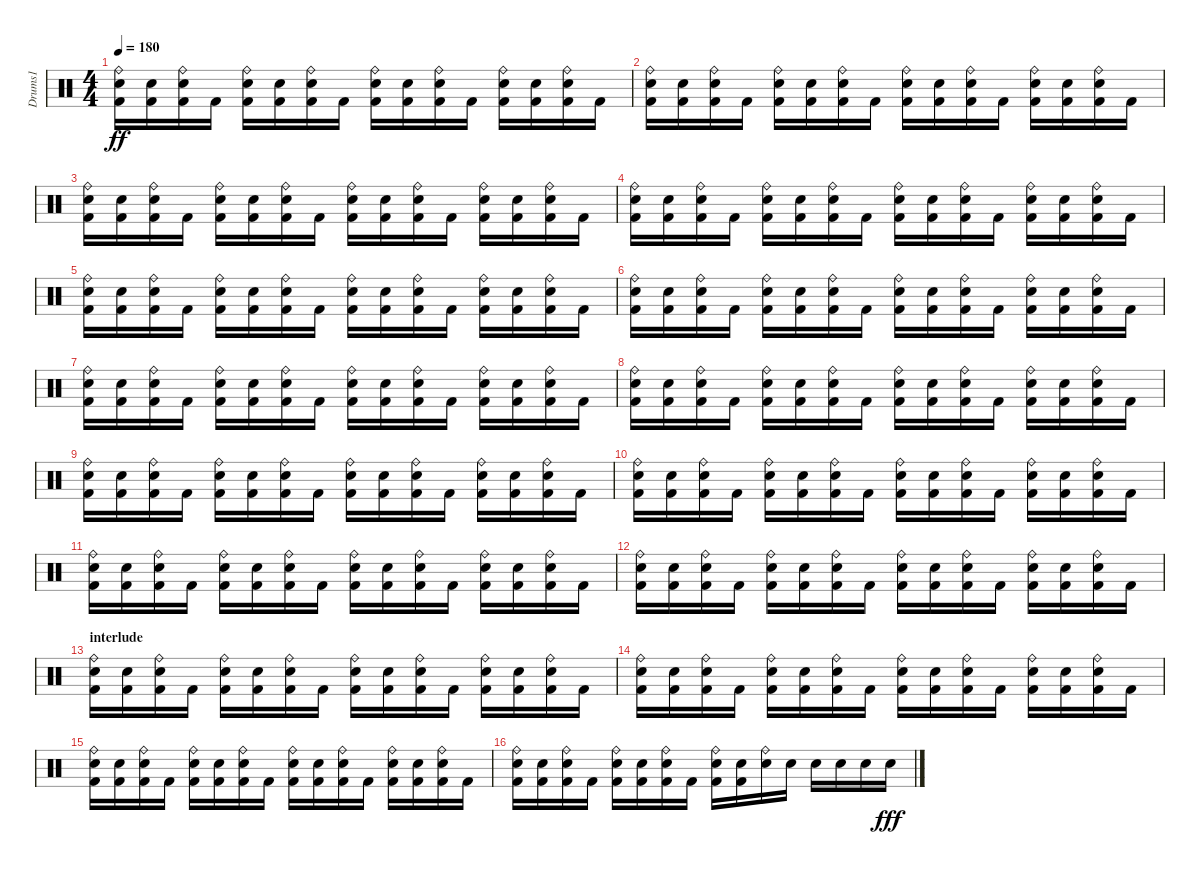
\track ("Drums1" "Drums1") {instrument percussion}
\staff {score}
\articulation defaults
\ts (4 4)
\tempo 180
\clef neutral
\ks c
("Ride (bell)" "Electric Snare (hit)" "Kick (hit) 2").16{dy ff} ("Electric Snare (hit)" "Kick (hit) 2").16 ("Ride (bell)" "Electric Snare (hit)" "Kick (hit) 2").16 "Kick (hit) 2".16 ("Ride (bell)" "Electric Snare (hit)" "Kick (hit) 2").16 ("Electric Snare (hit)" "Kick (hit) 2").16 ("Ride (bell)" "Electric Snare (hit)" "Kick (hit) 2").16 "Kick (hit) 2".16 ("Ride (bell)" "Electric Snare (hit)" "Kick (hit) 2").16 ("Electric Snare (hit)" "Kick (hit) 2").16 ("Ride (bell)" "Electric Snare (hit)" "Kick (hit) 2").16 "Kick (hit) 2".16 ("Ride (bell)" "Electric Snare (hit)" "Kick (hit) 2").16 ("Electric Snare (hit)" "Kick (hit) 2").16 ("Ride (bell)" "Electric Snare (hit)" "Kick (hit) 2").16 "Kick (hit) 2".16 |
("Ride (bell)" "Electric Snare (hit)" "Kick (hit) 2").16 ("Electric Snare (hit)" "Kick (hit) 2").16 ("Ride (bell)" "Electric Snare (hit)" "Kick (hit) 2").16 "Kick (hit) 2".16 ("Ride (bell)" "Electric Snare (hit)" "Kick (hit) 2").16 ("Electric Snare (hit)" "Kick (hit) 2").16 ("Ride (bell)" "Electric Snare (hit)" "Kick (hit) 2").16 "Kick (hit) 2".16 ("Ride (bell)" "Electric Snare (hit)" "Kick (hit) 2").16 ("Electric Snare (hit)" "Kick (hit) 2").16 ("Ride (bell)" "Electric Snare (hit)" "Kick (hit) 2").16 "Kick (hit) 2".16 ("Ride (bell)" "Electric Snare (hit)" "Kick (hit) 2").16 ("Electric Snare (hit)" "Kick (hit) 2").16 ("Ride (bell)" "Electric Snare (hit)" "Kick (hit) 2").16 "Kick (hit) 2".16 |
("Ride (bell)" "Electric Snare (hit)" "Kick (hit) 2").16 ("Electric Snare (hit)" "Kick (hit) 2").16 ("Ride (bell)" "Electric Snare (hit)" "Kick (hit) 2").16 "Kick (hit) 2".16 ("Ride (bell)" "Electric Snare (hit)" "Kick (hit) 2").16 ("Electric Snare (hit)" "Kick (hit) 2").16 ("Ride (bell)" "Electric Snare (hit)" "Kick (hit) 2").16 "Kick (hit) 2".16 ("Ride (bell)" "Electric Snare (hit)" "Kick (hit) 2").16 ("Electric Snare (hit)" "Kick (hit) 2").16 ("Ride (bell)" "Electric Snare (hit)" "Kick (hit) 2").16 "Kick (hit) 2".16 ("Ride (bell)" "Electric Snare (hit)" "Kick (hit) 2").16 ("Electric Snare (hit)" "Kick (hit) 2").16 ("Ride (bell)" "Electric Snare (hit)" "Kick (hit) 2").16 "Kick (hit) 2".16 |
("Ride (bell)" "Electric Snare (hit)" "Kick (hit) 2").16 ("Electric Snare (hit)" "Kick (hit) 2").16 ("Ride (bell)" "Electric Snare (hit)" "Kick (hit) 2").16 "Kick (hit) 2".16 ("Ride (bell)" "Electric Snare (hit)" "Kick (hit) 2").16 ("Electric Snare (hit)" "Kick (hit) 2").16 ("Ride (bell)" "Electric Snare (hit)" "Kick (hit) 2").16 "Kick (hit) 2".16 ("Ride (bell)" "Electric Snare (hit)" "Kick (hit) 2").16 ("Electric Snare (hit)" "Kick (hit) 2").16 ("Ride (bell)" "Electric Snare (hit)" "Kick (hit) 2").16 "Kick (hit) 2".16 ("Ride (bell)" "Electric Snare (hit)" "Kick (hit) 2").16 ("Electric Snare (hit)" "Kick (hit) 2").16 ("Ride (bell)" "Electric Snare (hit)" "Kick (hit) 2").16 "Kick (hit) 2".16 |
("Ride (bell)" "Electric Snare (hit)" "Kick (hit) 2").16 ("Electric Snare (hit)" "Kick (hit) 2").16 ("Ride (bell)" "Electric Snare (hit)" "Kick (hit) 2").16 "Kick (hit) 2".16 ("Ride (bell)" "Electric Snare (hit)" "Kick (hit) 2").16 ("Electric Snare (hit)" "Kick (hit) 2").16 ("Ride (bell)" "Electric Snare (hit)" "Kick (hit) 2").16 "Kick (hit) 2".16 ("Ride (bell)" "Electric Snare (hit)" "Kick (hit) 2").16 ("Electric Snare (hit)" "Kick (hit) 2").16 ("Ride (bell)" "Electric Snare (hit)" "Kick (hit) 2").16 "Kick (hit) 2".16 ("Ride (bell)" "Electric Snare (hit)" "Kick (hit) 2").16 ("Electric Snare (hit)" "Kick (hit) 2").16 ("Ride (bell)" "Electric Snare (hit)" "Kick (hit) 2").16 "Kick (hit) 2".16 |
("Ride (bell)" "Electric Snare (hit)" "Kick (hit) 2").16 ("Electric Snare (hit)" "Kick (hit) 2").16 ("Ride (bell)" "Electric Snare (hit)" "Kick (hit) 2").16 "Kick (hit) 2".16 ("Ride (bell)" "Electric Snare (hit)" "Kick (hit) 2").16 ("Electric Snare (hit)" "Kick (hit) 2").16 ("Ride (bell)" "Electric Snare (hit)" "Kick (hit) 2").16 "Kick (hit) 2".16 ("Ride (bell)" "Electric Snare (hit)" "Kick (hit) 2").16 ("Electric Snare (hit)" "Kick (hit) 2").16 ("Ride (bell)" "Electric Snare (hit)" "Kick (hit) 2").16 "Kick (hit) 2".16 ("Ride (bell)" "Electric Snare (hit)" "Kick (hit) 2").16 ("Electric Snare (hit)" "Kick (hit) 2").16 ("Ride (bell)" "Electric Snare (hit)" "Kick (hit) 2").16 "Kick (hit) 2".16 |
("Ride (bell)" "Electric Snare (hit)" "Kick (hit) 2").16 ("Electric Snare (hit)" "Kick (hit) 2").16 ("Ride (bell)" "Electric Snare (hit)" "Kick (hit) 2").16 "Kick (hit) 2".16 ("Ride (bell)" "Electric Snare (hit)" "Kick (hit) 2").16 ("Electric Snare (hit)" "Kick (hit) 2").16 ("Ride (bell)" "Electric Snare (hit)" "Kick (hit) 2").16 "Kick (hit) 2".16 ("Ride (bell)" "Electric Snare (hit)" "Kick (hit) 2").16 ("Electric Snare (hit)" "Kick (hit) 2").16 ("Ride (bell)" "Electric Snare (hit)" "Kick (hit) 2").16 "Kick (hit) 2".16 ("Ride (bell)" "Electric Snare (hit)" "Kick (hit) 2").16 ("Electric Snare (hit)" "Kick (hit) 2").16 ("Ride (bell)" "Electric Snare (hit)" "Kick (hit) 2").16 "Kick (hit) 2".16 |
("Ride (bell)" "Electric Snare (hit)" "Kick (hit) 2").16 ("Electric Snare (hit)" "Kick (hit) 2").16 ("Ride (bell)" "Electric Snare (hit)" "Kick (hit) 2").16 "Kick (hit) 2".16 ("Ride (bell)" "Electric Snare (hit)" "Kick (hit) 2").16 ("Electric Snare (hit)" "Kick (hit) 2").16 ("Ride (bell)" "Electric Snare (hit)" "Kick (hit) 2").16 "Kick (hit) 2".16 ("Ride (bell)" "Electric Snare (hit)" "Kick (hit) 2").16 ("Electric Snare (hit)" "Kick (hit) 2").16 ("Ride (bell)" "Electric Snare (hit)" "Kick (hit) 2").16 "Kick (hit) 2".16 ("Ride (bell)" "Electric Snare (hit)" "Kick (hit) 2").16 ("Electric Snare (hit)" "Kick (hit) 2").16 ("Ride (bell)" "Electric Snare (hit)" "Kick (hit) 2").16 "Kick (hit) 2".16 |
("Ride (bell)" "Electric Snare (hit)" "Kick (hit) 2").16 ("Electric Snare (hit)" "Kick (hit) 2").16 ("Ride (bell)" "Electric Snare (hit)" "Kick (hit) 2").16 "Kick (hit) 2".16 ("Ride (bell)" "Electric Snare (hit)" "Kick (hit) 2").16 ("Electric Snare (hit)" "Kick (hit) 2").16 ("Ride (bell)" "Electric Snare (hit)" "Kick (hit) 2").16 "Kick (hit) 2".16 ("Ride (bell)" "Electric Snare (hit)" "Kick (hit) 2").16 ("Electric Snare (hit)" "Kick (hit) 2").16 ("Ride (bell)" "Electric Snare (hit)" "Kick (hit) 2").16 "Kick (hit) 2".16 ("Ride (bell)" "Electric Snare (hit)" "Kick (hit) 2").16 ("Electric Snare (hit)" "Kick (hit) 2").16 ("Ride (bell)" "Electric Snare (hit)" "Kick (hit) 2").16 "Kick (hit) 2".16 |
("Ride (bell)" "Electric Snare (hit)" "Kick (hit) 2").16 ("Electric Snare (hit)" "Kick (hit) 2").16 ("Ride (bell)" "Electric Snare (hit)" "Kick (hit) 2").16 "Kick (hit) 2".16 ("Ride (bell)" "Electric Snare (hit)" "Kick (hit) 2").16 ("Electric Snare (hit)" "Kick (hit) 2").16 ("Ride (bell)" "Electric Snare (hit)" "Kick (hit) 2").16 "Kick (hit) 2".16 ("Ride (bell)" "Electric Snare (hit)" "Kick (hit) 2").16 ("Electric Snare (hit)" "Kick (hit) 2").16 ("Ride (bell)" "Electric Snare (hit)" "Kick (hit) 2").16 "Kick (hit) 2".16 ("Ride (bell)" "Electric Snare (hit)" "Kick (hit) 2").16 ("Electric Snare (hit)" "Kick (hit) 2").16 ("Ride (bell)" "Electric Snare (hit)" "Kick (hit) 2").16 "Kick (hit) 2".16 |
("Ride (bell)" "Electric Snare (hit)" "Kick (hit) 2").16 ("Electric Snare (hit)" "Kick (hit) 2").16 ("Ride (bell)" "Electric Snare (hit)" "Kick (hit) 2").16 "Kick (hit) 2".16 ("Ride (bell)" "Electric Snare (hit)" "Kick (hit) 2").16 ("Electric Snare (hit)" "Kick (hit) 2").16 ("Ride (bell)" "Electric Snare (hit)" "Kick (hit) 2").16 "Kick (hit) 2".16 ("Ride (bell)" "Electric Snare (hit)" "Kick (hit) 2").16 ("Electric Snare (hit)" "Kick (hit) 2").16 ("Ride (bell)" "Electric Snare (hit)" "Kick (hit) 2").16 "Kick (hit) 2".16 ("Ride (bell)" "Electric Snare (hit)" "Kick (hit) 2").16 ("Electric Snare (hit)" "Kick (hit) 2").16 ("Ride (bell)" "Electric Snare (hit)" "Kick (hit) 2").16 "Kick (hit) 2".16 |
("Ride (bell)" "Electric Snare (hit)" "Kick (hit) 2").16 ("Electric Snare (hit)" "Kick (hit) 2").16 ("Ride (bell)" "Electric Snare (hit)" "Kick (hit) 2").16 "Kick (hit) 2".16 ("Ride (bell)" "Electric Snare (hit)" "Kick (hit) 2").16 ("Electric Snare (hit)" "Kick (hit) 2").16 ("Ride (bell)" "Electric Snare (hit)" "Kick (hit) 2").16 "Kick (hit) 2".16 ("Ride (bell)" "Electric Snare (hit)" "Kick (hit) 2").16 ("Electric Snare (hit)" "Kick (hit) 2").16 ("Ride (bell)" "Electric Snare (hit)" "Kick (hit) 2").16 "Kick (hit) 2".16 ("Ride (bell)" "Electric Snare (hit)" "Kick (hit) 2").16 ("Electric Snare (hit)" "Kick (hit) 2").16 ("Ride (bell)" "Electric Snare (hit)" "Kick (hit) 2").16 "Kick (hit) 2".16 |
\section ("" "interlude")
("Ride (bell)" "Electric Snare (hit)" "Kick (hit) 2").16 ("Electric Snare (hit)" "Kick (hit) 2").16 ("Ride (bell)" "Electric Snare (hit)" "Kick (hit) 2").16 "Kick (hit) 2".16 ("Ride (bell)" "Electric Snare (hit)" "Kick (hit) 2").16 ("Electric Snare (hit)" "Kick (hit) 2").16 ("Ride (bell)" "Electric Snare (hit)" "Kick (hit) 2").16 "Kick (hit) 2".16 ("Ride (bell)" "Electric Snare (hit)" "Kick (hit) 2").16 ("Electric Snare (hit)" "Kick (hit) 2").16 ("Ride (bell)" "Electric Snare (hit)" "Kick (hit) 2").16 "Kick (hit) 2".16 ("Ride (bell)" "Electric Snare (hit)" "Kick (hit) 2").16 ("Electric Snare (hit)" "Kick (hit) 2").16 ("Ride (bell)" "Electric Snare (hit)" "Kick (hit) 2").16 "Kick (hit) 2".16 |
("Ride (bell)" "Electric Snare (hit)" "Kick (hit) 2").16 ("Electric Snare (hit)" "Kick (hit) 2").16 ("Ride (bell)" "Electric Snare (hit)" "Kick (hit) 2").16 "Kick (hit) 2".16 ("Ride (bell)" "Electric Snare (hit)" "Kick (hit) 2").16 ("Electric Snare (hit)" "Kick (hit) 2").16 ("Ride (bell)" "Electric Snare (hit)" "Kick (hit) 2").16 "Kick (hit) 2".16 ("Ride (bell)" "Electric Snare (hit)" "Kick (hit) 2").16 ("Electric Snare (hit)" "Kick (hit) 2").16 ("Ride (bell)" "Electric Snare (hit)" "Kick (hit) 2").16 "Kick (hit) 2".16 ("Ride (bell)" "Electric Snare (hit)" "Kick (hit) 2").16 ("Electric Snare (hit)" "Kick (hit) 2").16 ("Ride (bell)" "Electric Snare (hit)" "Kick (hit) 2").16 "Kick (hit) 2".16 |
("Ride (bell)" "Electric Snare (hit)" "Kick (hit) 2").16 ("Electric Snare (hit)" "Kick (hit) 2").16 ("Ride (bell)" "Electric Snare (hit)" "Kick (hit) 2").16 "Kick (hit) 2".16 ("Ride (bell)" "Electric Snare (hit)" "Kick (hit) 2").16 ("Electric Snare (hit)" "Kick (hit) 2").16 ("Ride (bell)" "Electric Snare (hit)" "Kick (hit) 2").16 "Kick (hit) 2".16 ("Ride (bell)" "Electric Snare (hit)" "Kick (hit) 2").16 ("Electric Snare (hit)" "Kick (hit) 2").16 ("Ride (bell)" "Electric Snare (hit)" "Kick (hit) 2").16 "Kick (hit) 2".16 ("Ride (bell)" "Electric Snare (hit)" "Kick (hit) 2").16 ("Electric Snare (hit)" "Kick (hit) 2").16 ("Ride (bell)" "Electric Snare (hit)" "Kick (hit) 2").16 "Kick (hit) 2".16 |
("Ride (bell)" "Electric Snare (hit)" "Kick (hit) 2").16 ("Electric Snare (hit)" "Kick (hit) 2").16 ("Ride (bell)" "Electric Snare (hit)" "Kick (hit) 2").16 "Kick (hit) 2".16 ("Ride (bell)" "Electric Snare (hit)" "Kick (hit) 2").16 ("Electric Snare (hit)" "Kick (hit) 2").16 ("Ride (bell)" "Electric Snare (hit)" "Kick (hit) 2").16 "Kick (hit) 2".16 ("Ride (bell)" "Electric Snare (hit)" "Kick (hit) 2").16 ("Electric Snare (hit)" "Kick (hit) 2").16 ("Ride (bell)" "Electric Snare (hit)").16 "Electric Snare (hit)".16 "Electric Snare (hit)".16 "Electric Snare (hit)".16 "Electric Snare (hit)".16 "Electric Snare (hit)".16{dy fff}
